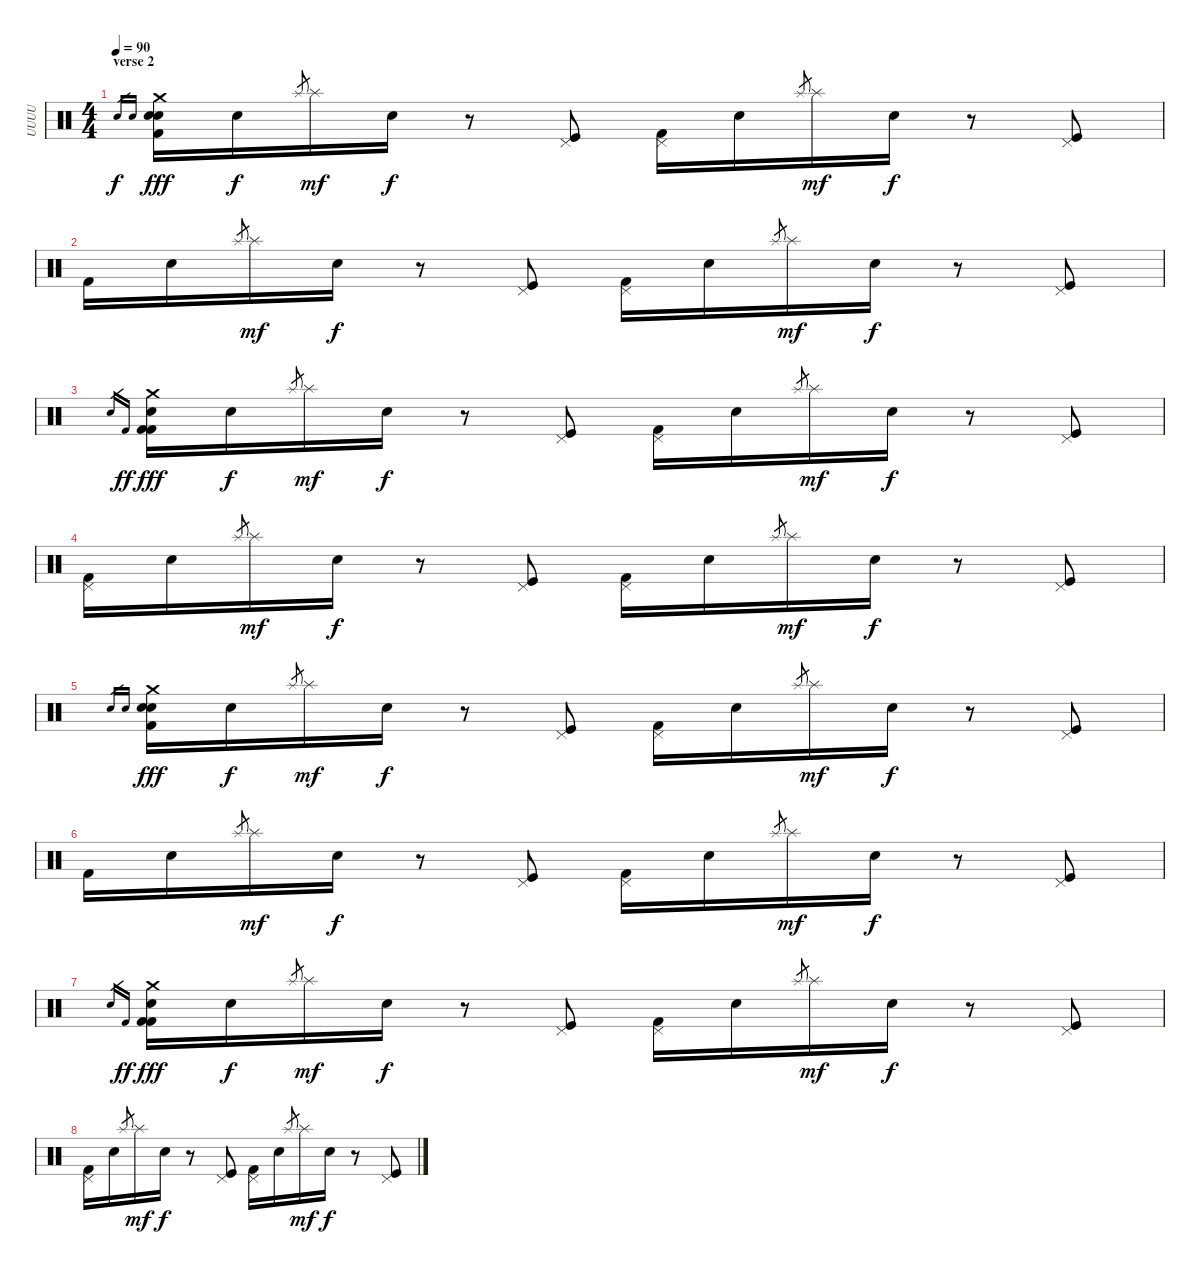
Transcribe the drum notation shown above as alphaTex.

\track ("UUUU" "UUUU") {instrument percussion}
\staff {score}
\articulation defaults
\ts (4 4)
\section ("" "verse 2")
\tempo 90
\clef neutral
\ks c "Electric Snare (hit)".16{gr dy f} "Snare (hit) 2".16{gr}
("Crash medium (hit)" "Kick (hit) 2" "Electric Snare (hit)" "Snare (hit) 2").16{dy fff} "Snare (hit) 2".16{dy f} "Splash (hit)".8{gr} "Splash (hit)".16{dy mf} "Electric Snare (hit)".16{dy f} r.8 ("Pedal Hi-Hat (hit)" "Kick (hit)").8 ("Pedal Hi-Hat (hit)" "Kick (hit) 2").16 "Snare (hit) 2".16 "Splash (hit)"{h}.8{gr} "Splash (hit)".16{dy mf} "Electric Snare (hit)".16{dy f} r.8 ("Pedal Hi-Hat (hit)" "Kick (hit)").8 |
"Kick (hit) 2".16 "Snare (hit) 2".16 "Splash (hit)".8{gr} "Splash (hit)".16{dy mf} "Electric Snare (hit)".16{dy f} r.8 ("Pedal Hi-Hat (hit)" "Kick (hit)").8 ("Pedal Hi-Hat (hit)" "Kick (hit) 2").16 "Snare (hit) 2".16 "Splash (hit)".8{gr} "Splash (hit)".16{dy mf} "Electric Snare (hit)".16{dy f} r.8 ("Pedal Hi-Hat (hit)" "Kick (hit)").8 |
"Electric Snare (hit)".16{gr} "Kick (hit) 2".16{gr dy ff} ("Crash medium (hit)" "Kick (hit) 2" "Electric Snare (hit)" "Kick (hit) 2").16{dy fff} "Snare (hit) 2".16{dy f} "Splash (hit)".8{gr} "Splash (hit)".16{dy mf} "Electric Snare (hit)".16{dy f} r.8 ("Pedal Hi-Hat (hit)" "Kick (hit)").8 ("Pedal Hi-Hat (hit)" "Kick (hit) 2").16 "Snare (hit) 2".16 "Splash (hit)".8{gr} "Splash (hit)".16{dy mf} "Electric Snare (hit)".16{dy f} r.8 ("Pedal Hi-Hat (hit)" "Kick (hit)").8 |
("Pedal Hi-Hat (hit)" "Kick (hit) 2").16 "Snare (hit) 2".16 "Splash (hit)".8{gr} "Splash (hit)".16{dy mf} "Electric Snare (hit)".16{dy f} r.8 ("Pedal Hi-Hat (hit)" "Kick (hit)").8 ("Pedal Hi-Hat (hit)" "Kick (hit) 2").16 "Snare (hit) 2".16 "Splash (hit)"{h}.8{gr} "Splash (hit)".16{dy mf} "Electric Snare (hit)".16{dy f} r.8 ("Pedal Hi-Hat (hit)" "Kick (hit)").8 |
"Electric Snare (hit)".16{gr} "Snare (hit) 2".16{gr} ("Crash medium (hit)" "Kick (hit) 2" "Electric Snare (hit)" "Snare (hit) 2").16{dy fff} "Snare (hit) 2".16{dy f} "Splash (hit)".8{gr} "Splash (hit)".16{dy mf} "Electric Snare (hit)".16{dy f} r.8 ("Pedal Hi-Hat (hit)" "Kick (hit)").8 ("Pedal Hi-Hat (hit)" "Kick (hit) 2").16 "Snare (hit) 2".16 "Splash (hit)"{h}.8{gr} "Splash (hit)".16{dy mf} "Electric Snare (hit)".16{dy f} r.8 ("Pedal Hi-Hat (hit)" "Kick (hit)").8 |
"Kick (hit) 2".16 "Snare (hit) 2".16 "Splash (hit)".8{gr} "Splash (hit)".16{dy mf} "Electric Snare (hit)".16{dy f} r.8 ("Pedal Hi-Hat (hit)" "Kick (hit)").8 ("Pedal Hi-Hat (hit)" "Kick (hit) 2").16 "Snare (hit) 2".16 "Splash (hit)".8{gr} "Splash (hit)".16{dy mf} "Electric Snare (hit)".16{dy f} r.8 ("Pedal Hi-Hat (hit)" "Kick (hit)").8 |
"Electric Snare (hit)".16{gr} "Kick (hit) 2".16{gr dy ff} ("Crash medium (hit)" "Kick (hit) 2" "Electric Snare (hit)" "Kick (hit) 2").16{dy fff} "Snare (hit) 2".16{dy f} "Splash (hit)".8{gr} "Splash (hit)".16{dy mf} "Electric Snare (hit)".16{dy f} r.8 ("Pedal Hi-Hat (hit)" "Kick (hit)").8 ("Pedal Hi-Hat (hit)" "Kick (hit) 2").16 "Snare (hit) 2".16 "Splash (hit)".8{gr} "Splash (hit)".16{dy mf} "Electric Snare (hit)".16{dy f} r.8 ("Pedal Hi-Hat (hit)" "Kick (hit)").8 |
("Pedal Hi-Hat (hit)" "Kick (hit) 2").16 "Snare (hit) 2".16 "Splash (hit)".8{gr} "Splash (hit)".16{dy mf} "Electric Snare (hit)".16{dy f} r.8 ("Pedal Hi-Hat (hit)" "Kick (hit)").8 ("Pedal Hi-Hat (hit)" "Kick (hit) 2").16 "Snare (hit) 2".16 "Splash (hit)"{h}.8{gr} "Splash (hit)".16{dy mf} "Electric Snare (hit)".16{dy f} r.8 ("Pedal Hi-Hat (hit)" "Kick (hit)").8
